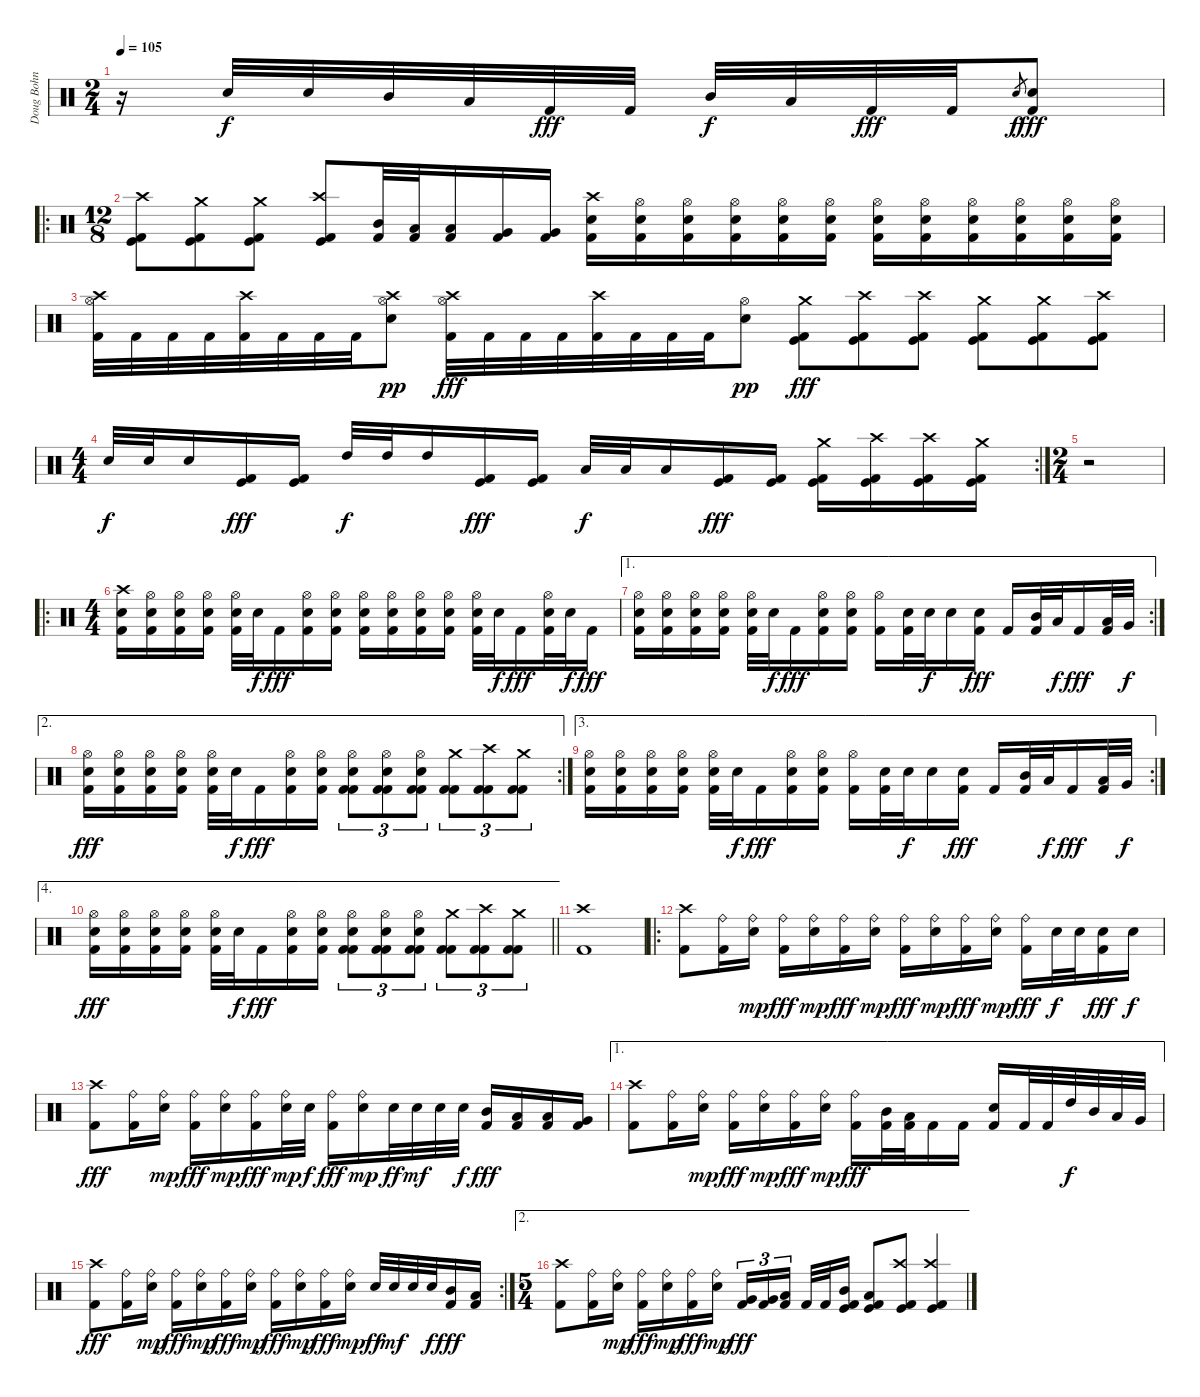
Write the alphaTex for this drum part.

\track ("Doug Bohn" "Doug Bohn") {instrument percussion}
\staff {score}
\articulation defaults
\ts (2 4)
\tempo 105
\clef neutral
\ks c
r.16{dy f} "Snare (hit) 2".32 "Snare (hit) 2".32 "Mid Tom (hit)".32 "Low Tom (hit)".32 "Kick (hit) 2".32{dy fff} "Kick (hit) 2".32 "Mid Tom (hit)".32{dy f} "Low Tom (hit)".32 "Kick (hit) 2".32{dy fff} "Kick (hit) 2".32 "Snare (hit) 2".8{gr dy f} ("Snare (hit) 2" "Kick (hit) 2").8{dy fff} |
\ro
\ts (12 8)
("Crash high (hit)" "Kick (hit)" "Kick (hit) 2").8 ("Crash medium (hit)" "Kick (hit)" "Kick (hit) 2").8 ("Crash medium (hit)" "Kick (hit)" "Kick (hit) 2").8 ("Crash high (hit)" "Kick (hit)" "Kick (hit) 2").8 ("Mid Tom (hit)" "Kick (hit) 2").32 ("Low Tom (hit)" "Kick (hit) 2").32 ("Low Tom (hit)" "Kick (hit) 2").16 ("Very Low Tom (hit)" "Kick (hit) 2").16 ("Very Low Tom (hit)" "Kick (hit) 2").16 ("Crash high (hit)" "Snare (hit) 2" "Kick (hit) 2").16 ("Hi-Hat (open)" "Snare (hit) 2" "Kick (hit) 2").16 ("Hi-Hat (open)" "Snare (hit) 2" "Kick (hit) 2").16 ("Hi-Hat (open)" "Snare (hit) 2" "Kick (hit) 2").16 ("Hi-Hat (open)" "Snare (hit) 2" "Kick (hit) 2").16 ("Hi-Hat (open)" "Snare (hit) 2" "Kick (hit) 2").16 ("Hi-Hat (open)" "Snare (hit) 2" "Kick (hit) 2").16 ("Hi-Hat (open)" "Snare (hit) 2" "Kick (hit) 2").16 ("Hi-Hat (open)" "Snare (hit) 2" "Kick (hit) 2").16 ("Hi-Hat (open)" "Snare (hit) 2" "Kick (hit) 2").16 ("Hi-Hat (open)" "Snare (hit) 2" "Kick (hit) 2").16 ("Hi-Hat (open)" "Snare (hit) 2" "Kick (hit) 2").16 |
("Crash high (hit)" "Hi-Hat (open)" "Kick (hit) 2").32 "Kick (hit) 2".32 "Kick (hit) 2".32 "Kick (hit) 2".32 ("Crash high (hit)" "Kick (hit) 2").32 "Kick (hit) 2".32 "Kick (hit) 2".32 "Kick (hit) 2".32 ("Crash high (hit)" "Hi-Hat (open)" "Snare (hit) 2").8{dy pp} ("Crash high (hit)" "Hi-Hat (open)" "Kick (hit) 2").32{dy fff} "Kick (hit) 2".32 "Kick (hit) 2".32 "Kick (hit) 2".32 ("Crash high (hit)" "Kick (hit) 2").32 "Kick (hit) 2".32 "Kick (hit) 2".32 "Kick (hit) 2".32 ("Hi-Hat (open)" "Snare (hit) 2").8{dy pp} ("Crash medium (hit)" "Kick (hit)" "Kick (hit) 2").8{dy fff} ("Crash high (hit)" "Kick (hit)" "Kick (hit) 2").8 ("Crash high (hit)" "Kick (hit)" "Kick (hit) 2").8 ("Crash medium (hit)" "Kick (hit)" "Kick (hit) 2").8 ("Crash medium (hit)" "Kick (hit)" "Kick (hit) 2").8 ("Crash high (hit)" "Kick (hit)" "Kick (hit) 2").8 |
\rc 2
\ts (4 4)
"Snare (hit) 2".32{dy f} "Snare (hit) 2".32 "Snare (hit) 2".16 ("Kick (hit)" "Kick (hit) 2").16{dy fff} ("Kick (hit)" "Kick (hit) 2").16 "High Tom (hit)".32{dy f} "High Tom (hit)".32 "High Tom (hit)".16 ("Kick (hit)" "Kick (hit) 2").16{dy fff} ("Kick (hit)" "Kick (hit) 2").16 "Low Tom (hit)".32{dy f} "Low Tom (hit)".32 "Low Tom (hit)".16 ("Kick (hit)" "Kick (hit) 2").16{dy fff} ("Kick (hit)" "Kick (hit) 2").16 ("Crash medium (hit)" "Kick (hit)" "Kick (hit) 2").16 ("Crash high (hit)" "Kick (hit)" "Kick (hit) 2").16 ("Crash high (hit)" "Kick (hit)" "Kick (hit) 2").16 ("Crash medium (hit)" "Kick (hit)" "Kick (hit) 2").16 |
\ts (2 4)
r.2 |
\ro
\ts (4 4)
("Crash high (hit)" "Snare (hit) 2" "Kick (hit) 2").16 ("Hi-Hat (open)" "Snare (hit) 2" "Kick (hit) 2").16 ("Hi-Hat (open)" "Snare (hit) 2" "Kick (hit) 2").16 ("Hi-Hat (open)" "Snare (hit) 2" "Kick (hit) 2").16 ("Hi-Hat (open)" "Snare (hit) 2" "Kick (hit) 2").32 "Snare (hit) 2".32{dy f} "Kick (hit) 2".16{dy fff} ("Hi-Hat (open)" "Snare (hit) 2" "Kick (hit) 2").16 ("Hi-Hat (open)" "Snare (hit) 2" "Kick (hit) 2").16 ("Hi-Hat (open)" "Snare (hit) 2" "Kick (hit) 2").16 ("Hi-Hat (open)" "Snare (hit) 2" "Kick (hit) 2").16 ("Hi-Hat (open)" "Snare (hit) 2" "Kick (hit) 2").16 ("Hi-Hat (open)" "Snare (hit) 2" "Kick (hit) 2").16 ("Hi-Hat (open)" "Snare (hit) 2" "Kick (hit) 2").32 "Snare (hit) 2".32{dy f} "Kick (hit) 2".16{dy fff} ("Hi-Hat (open)" "Snare (hit) 2" "Kick (hit) 2").32 "Snare (hit) 2".32{dy f} "Kick (hit) 2".16{dy fff} |
\ae 1
\rc 2
("Hi-Hat (open)" "Snare (hit) 2" "Kick (hit) 2").16 ("Hi-Hat (open)" "Snare (hit) 2" "Kick (hit) 2").16 ("Hi-Hat (open)" "Snare (hit) 2" "Kick (hit) 2").16 ("Hi-Hat (open)" "Snare (hit) 2" "Kick (hit) 2").16 ("Hi-Hat (open)" "Snare (hit) 2" "Kick (hit) 2").32 "Snare (hit) 2".32{dy f} "Kick (hit) 2".16{dy fff} ("Hi-Hat (open)" "Snare (hit) 2" "Kick (hit) 2").16 ("Hi-Hat (open)" "Snare (hit) 2" "Kick (hit) 2").16 ("Hi-Hat (open)" "Kick (hit) 2").16 ("Snare (hit) 2" "Kick (hit) 2").32 "Snare (hit) 2".32{dy f} "Snare (hit) 2".16 ("Snare (hit) 2" "Kick (hit) 2").16{dy fff} "Kick (hit) 2".16 ("Mid Tom (hit)" "Kick (hit) 2").32 "Low Tom (hit)".32{dy f} "Kick (hit) 2".16{dy fff} ("Low Tom (hit)" "Kick (hit) 2").32 "Very Low Tom (hit)".32{dy f} |
\ae 2
\rc 2
("Hi-Hat (open)" "Snare (hit) 2" "Kick (hit) 2").16{dy fff} ("Hi-Hat (open)" "Snare (hit) 2" "Kick (hit) 2").16 ("Hi-Hat (open)" "Snare (hit) 2" "Kick (hit) 2").16 ("Hi-Hat (open)" "Snare (hit) 2" "Kick (hit) 2").16 ("Hi-Hat (open)" "Snare (hit) 2" "Kick (hit) 2").32 "Snare (hit) 2".32{dy f} "Kick (hit) 2".16{dy fff} ("Hi-Hat (open)" "Snare (hit) 2" "Kick (hit) 2").16 ("Hi-Hat (open)" "Snare (hit) 2" "Kick (hit) 2").16 ("Hi-Hat (open)" "Snare (hit) 2" "Kick (hit) 2" "Kick (hit) 2").8{tu (3 2)} ("Hi-Hat (open)" "Snare (hit) 2" "Kick (hit) 2" "Kick (hit) 2").8{tu (3 2)} ("Hi-Hat (open)" "Snare (hit) 2" "Kick (hit) 2" "Kick (hit) 2").8{tu (3 2)} ("Crash medium (hit)" "Kick (hit) 2" "Kick (hit) 2").8{tu (3 2)} ("Crash high (hit)" "Kick (hit) 2" "Kick (hit) 2").8{tu (3 2)} ("Crash medium (hit)" "Kick (hit) 2" "Kick (hit) 2").8{tu (3 2)} |
\ae 3
\rc 2
("Hi-Hat (open)" "Snare (hit) 2" "Kick (hit) 2").16 ("Hi-Hat (open)" "Snare (hit) 2" "Kick (hit) 2").16 ("Hi-Hat (open)" "Snare (hit) 2" "Kick (hit) 2").16 ("Hi-Hat (open)" "Snare (hit) 2" "Kick (hit) 2").16 ("Hi-Hat (open)" "Snare (hit) 2" "Kick (hit) 2").32 "Snare (hit) 2".32{dy f} "Kick (hit) 2".16{dy fff} ("Hi-Hat (open)" "Snare (hit) 2" "Kick (hit) 2").16 ("Hi-Hat (open)" "Snare (hit) 2" "Kick (hit) 2").16 ("Hi-Hat (open)" "Kick (hit) 2").16 ("Snare (hit) 2" "Kick (hit) 2").32 "Snare (hit) 2".32{dy f} "Snare (hit) 2".16 ("Snare (hit) 2" "Kick (hit) 2").16{dy fff} "Kick (hit) 2".16 ("Mid Tom (hit)" "Kick (hit) 2").32 "Low Tom (hit)".32{dy f} "Kick (hit) 2".16{dy fff} ("Low Tom (hit)" "Kick (hit) 2").32 "Very Low Tom (hit)".32{dy f} |
\ae 4
\barLineRight lightlight
("Hi-Hat (open)" "Snare (hit) 2" "Kick (hit) 2").16{dy fff} ("Hi-Hat (open)" "Snare (hit) 2" "Kick (hit) 2").16 ("Hi-Hat (open)" "Snare (hit) 2" "Kick (hit) 2").16 ("Hi-Hat (open)" "Snare (hit) 2" "Kick (hit) 2").16 ("Hi-Hat (open)" "Snare (hit) 2" "Kick (hit) 2").32 "Snare (hit) 2".32{dy f} "Kick (hit) 2".16{dy fff} ("Hi-Hat (open)" "Snare (hit) 2" "Kick (hit) 2").16 ("Hi-Hat (open)" "Snare (hit) 2" "Kick (hit) 2").16 ("Hi-Hat (open)" "Snare (hit) 2" "Kick (hit) 2" "Kick (hit) 2").8{tu (3 2)} ("Hi-Hat (open)" "Snare (hit) 2" "Kick (hit) 2" "Kick (hit) 2").8{tu (3 2)} ("Hi-Hat (open)" "Snare (hit) 2" "Kick (hit) 2" "Kick (hit) 2").8{tu (3 2)} ("Crash medium (hit)" "Kick (hit) 2" "Kick (hit) 2").8{tu (3 2)} ("Crash high (hit)" "Kick (hit) 2" "Kick (hit) 2").8{tu (3 2)} ("Crash medium (hit)" "Kick (hit) 2" "Kick (hit) 2").8{tu (3 2)} |
("Crash high (hit)" "Kick (hit) 2").1 |
\ro
("Crash high (hit)" "Kick (hit) 2").8 ("Ride (bell)" "Kick (hit) 2").16 ("Ride (bell)" "Snare (hit) 2").16{dy mp} ("Ride (bell)" "Kick (hit) 2").16{dy fff} ("Ride (bell)" "Snare (hit) 2").16{dy mp} ("Ride (bell)" "Kick (hit) 2").16{dy fff} ("Ride (bell)" "Snare (hit) 2").16{dy mp} ("Ride (bell)" "Kick (hit) 2").16{dy fff} ("Ride (bell)" "Snare (hit) 2").16{dy mp} ("Ride (bell)" "Kick (hit) 2").16{dy fff} ("Ride (bell)" "Snare (hit) 2").16{dy mp} ("Ride (bell)" "Kick (hit) 2").16{dy fff} "Snare (hit) 2".32{dy f} "Snare (hit) 2".32 ("Snare (hit) 2" "Kick (hit) 2").16{dy fff} "Snare (hit) 2".16{dy f} |
("Crash high (hit)" "Kick (hit) 2").8{dy fff} ("Ride (bell)" "Kick (hit) 2").16 ("Ride (bell)" "Snare (hit) 2").16{dy mp} ("Ride (bell)" "Kick (hit) 2").16{dy fff} ("Ride (bell)" "Snare (hit) 2").16{dy mp} ("Ride (bell)" "Kick (hit) 2").16{dy fff} ("Ride (bell)" "Snare (hit) 2").32{dy mp} "Snare (hit) 2".32{dy f} ("Ride (bell)" "Kick (hit) 2").16{dy fff} ("Ride (bell)" "Snare (hit) 2").16{dy mp} "Snare (hit) 2".32{dy ff} "Snare (hit) 2".32{dy mf} "Snare (hit) 2".32 "Snare (hit) 2".32{dy f} ("Mid Tom (hit)" "Kick (hit) 2").16{dy fff} ("Low Tom (hit)" "Kick (hit) 2").16 ("Low Tom (hit)" "Kick (hit) 2").16 ("Very Low Tom (hit)" "Kick (hit) 2").16 |
\ae 1
("Crash high (hit)" "Kick (hit) 2").8 ("Ride (bell)" "Kick (hit) 2").16 ("Ride (bell)" "Snare (hit) 2").16{dy mp} ("Ride (bell)" "Kick (hit) 2").16{dy fff} ("Ride (bell)" "Snare (hit) 2").16{dy mp} ("Ride (bell)" "Kick (hit) 2").16{dy fff} ("Ride (bell)" "Snare (hit) 2").16{dy mp} ("Ride (bell)" "Kick (hit) 2").16{dy fff} ("Mid Tom (hit)" "Kick (hit) 2").32 ("Low Tom (hit)" "Kick (hit) 2").32 "Kick (hit) 2".16 "Kick (hit) 2".16 ("Snare (hit) 2" "Kick (hit) 2").16 "Kick (hit) 2".32 "Kick (hit) 2".32 "High Tom (hit)".32{dy f} "Mid Tom (hit)".32 "Low Tom (hit)".32 "Very Low Tom (hit)".32 |
\rc 2
("Crash high (hit)" "Kick (hit) 2").8{dy fff} ("Ride (bell)" "Kick (hit) 2").16 ("Ride (bell)" "Snare (hit) 2").16{dy mp} ("Ride (bell)" "Kick (hit) 2").16{dy fff} ("Ride (bell)" "Snare (hit) 2").16{dy mp} ("Ride (bell)" "Kick (hit) 2").16{dy fff} ("Ride (bell)" "Snare (hit) 2").16{dy mp} ("Ride (bell)" "Kick (hit) 2").16{dy fff} ("Ride (bell)" "Snare (hit) 2").16{dy mp} ("Ride (bell)" "Kick (hit) 2").16{dy fff} ("Ride (bell)" "Snare (hit) 2").16{dy mp} "Snare (hit) 2".32{dy ff} "Snare (hit) 2".32{dy mf} "Snare (hit) 2".32 "Snare (hit) 2".32{dy f} ("Mid Tom (hit)" "Kick (hit) 2").16{dy fff} ("Low Tom (hit)" "Kick (hit) 2").16 |
\ae 2
\ts (5 4)
("Crash high (hit)" "Kick (hit) 2").8 ("Ride (bell)" "Kick (hit) 2").16 ("Ride (bell)" "Snare (hit) 2").16{dy mp} ("Ride (bell)" "Kick (hit) 2").16{dy fff} ("Ride (bell)" "Snare (hit) 2").16{dy mp} ("Ride (bell)" "Kick (hit) 2").16{dy fff} ("Ride (bell)" "Snare (hit) 2").16{dy mp} ("Very Low Tom (hit)" "Kick (hit) 2").16{tu (3 2) dy fff} ("Very Low Tom (hit)" "Kick (hit) 2").16{tu (3 2)} ("Low Floor Tom (hit)" "Kick (hit) 2").16{tu (3 2)} "Kick (hit) 2".32 "Kick (hit) 2".32 ("Mid Tom (hit)" "Kick (hit)" "Kick (hit) 2").16 ("Low Tom (hit)" "Kick (hit)" "Kick (hit) 2").8 ("Crash high (hit)" "Kick (hit)" "Kick (hit) 2").8 ("Crash high (hit)" "Kick (hit)" "Kick (hit) 2").4
